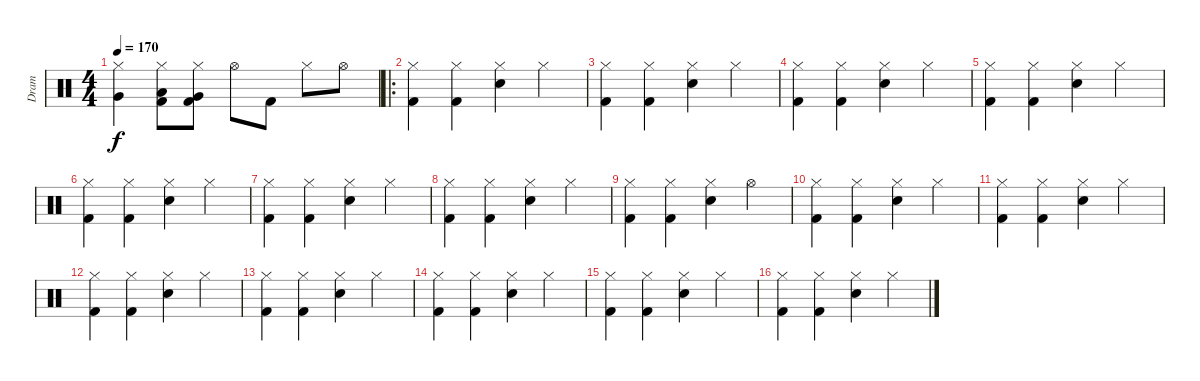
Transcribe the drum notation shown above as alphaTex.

\track ("Dram" "Dram") {instrument percussion}
\staff {score}
\articulation defaults
\ts (4 4)
\tempo 170
\clef neutral
\ks c
("Hi-Hat (closed)" "Very Low Tom (hit)").4{dy f} ("Hi-Hat (closed)" "Low Tom (hit)" "Kick (hit) 2").8 ("Hi-Hat (closed)" "Very Low Tom (hit)" "Kick (hit) 2").8 "Hi-Hat (open)".8 "Kick (hit) 2".8 "Hi-Hat (closed)".8 "Hi-Hat (open)".8 |
\ro
("Hi-Hat (closed)" "Kick (hit) 2").4 ("Hi-Hat (closed)" "Kick (hit) 2").4 ("Hi-Hat (closed)" "Electric Snare (hit)").4 "Hi-Hat (closed)".4 |
("Hi-Hat (closed)" "Kick (hit) 2").4 ("Hi-Hat (closed)" "Kick (hit) 2").4 ("Hi-Hat (closed)" "Electric Snare (hit)").4 "Hi-Hat (closed)".4 |
("Hi-Hat (closed)" "Kick (hit) 2").4 ("Hi-Hat (closed)" "Kick (hit) 2").4 ("Hi-Hat (closed)" "Electric Snare (hit)").4 "Hi-Hat (closed)".4 |
("Hi-Hat (closed)" "Kick (hit) 2").4 ("Hi-Hat (closed)" "Kick (hit) 2").4 ("Hi-Hat (closed)" "Electric Snare (hit)").4 "Hi-Hat (closed)".4 |
("Hi-Hat (closed)" "Kick (hit) 2").4 ("Hi-Hat (closed)" "Kick (hit) 2").4 ("Hi-Hat (closed)" "Electric Snare (hit)").4 "Hi-Hat (closed)".4 |
("Hi-Hat (closed)" "Kick (hit) 2").4 ("Hi-Hat (closed)" "Kick (hit) 2").4 ("Hi-Hat (closed)" "Electric Snare (hit)").4 "Hi-Hat (closed)".4 |
("Hi-Hat (closed)" "Kick (hit) 2").4 ("Hi-Hat (closed)" "Kick (hit) 2").4 ("Hi-Hat (closed)" "Electric Snare (hit)").4 "Hi-Hat (closed)".4 |
("Hi-Hat (closed)" "Kick (hit) 2").4 ("Hi-Hat (closed)" "Kick (hit) 2").4 ("Hi-Hat (closed)" "Electric Snare (hit)").4 "Hi-Hat (open)".4 |
("Hi-Hat (closed)" "Kick (hit) 2").4 ("Hi-Hat (closed)" "Kick (hit) 2").4 ("Hi-Hat (closed)" "Electric Snare (hit)").4 "Hi-Hat (closed)".4 |
("Hi-Hat (closed)" "Kick (hit) 2").4 ("Hi-Hat (closed)" "Kick (hit) 2").4 ("Hi-Hat (closed)" "Electric Snare (hit)").4 "Hi-Hat (closed)".4 |
("Hi-Hat (closed)" "Kick (hit) 2").4 ("Hi-Hat (closed)" "Kick (hit) 2").4 ("Hi-Hat (closed)" "Electric Snare (hit)").4 "Hi-Hat (closed)".4 |
("Hi-Hat (closed)" "Kick (hit) 2").4 ("Hi-Hat (closed)" "Kick (hit) 2").4 ("Hi-Hat (closed)" "Electric Snare (hit)").4 "Hi-Hat (closed)".4 |
("Hi-Hat (closed)" "Kick (hit) 2").4 ("Hi-Hat (closed)" "Kick (hit) 2").4 ("Hi-Hat (closed)" "Electric Snare (hit)").4 "Hi-Hat (closed)".4 |
("Hi-Hat (closed)" "Kick (hit) 2").4 ("Hi-Hat (closed)" "Kick (hit) 2").4 ("Hi-Hat (closed)" "Electric Snare (hit)").4 "Hi-Hat (closed)".4 |
("Hi-Hat (closed)" "Kick (hit) 2").4 ("Hi-Hat (closed)" "Kick (hit) 2").4 ("Hi-Hat (closed)" "Electric Snare (hit)").4 "Hi-Hat (closed)".4
